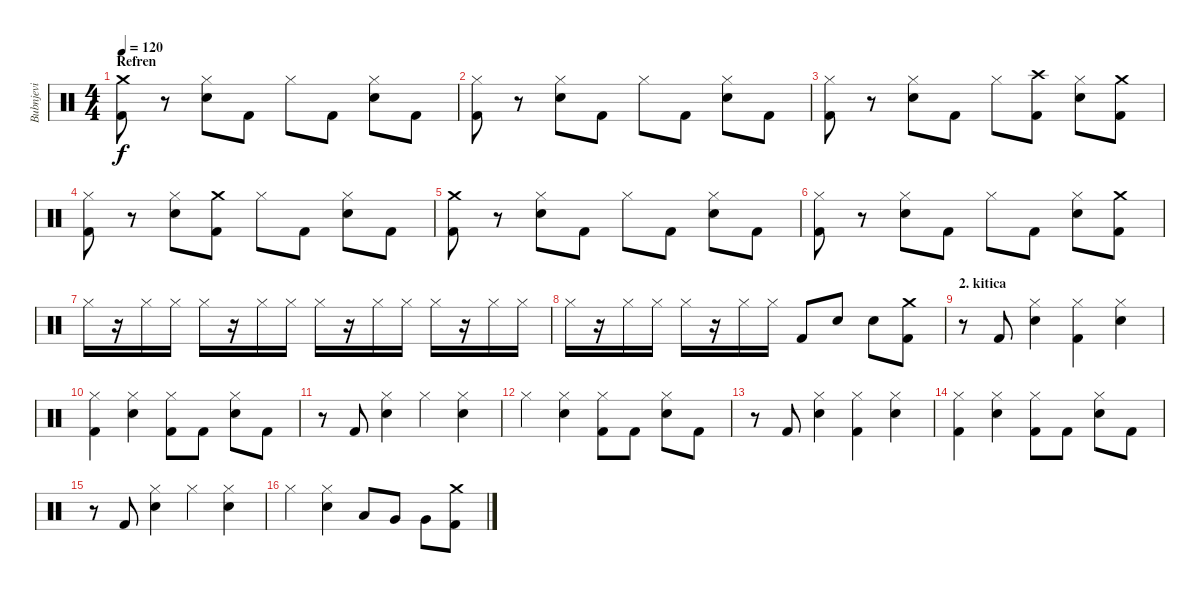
\track ("Bubnjevi" "Bubnjevi") {instrument percussion}
\staff {score}
\articulation defaults
\ts (4 4)
\section ("" "Refren")
\tempo 120
\clef neutral
\ks c
("Crash medium (hit)" "Kick (hit) 2").8{dy f} r.8 ("Electric Snare (hit)" "Hi-Hat (closed)").8 "Kick (hit) 2".8 "Hi-Hat (closed)".8 "Kick (hit) 2".8 ("Electric Snare (hit)" "Hi-Hat (closed)").8 "Kick (hit) 2".8 |
("Hi-Hat (closed)" "Kick (hit) 2").8 r.8 ("Electric Snare (hit)" "Hi-Hat (closed)").8 "Kick (hit) 2".8 "Hi-Hat (closed)".8 "Kick (hit) 2".8 ("Electric Snare (hit)" "Hi-Hat (closed)").8 "Kick (hit) 2".8 |
("Hi-Hat (closed)" "Kick (hit) 2").8 r.8 ("Electric Snare (hit)" "Hi-Hat (closed)").8 "Kick (hit) 2".8 "Hi-Hat (closed)".8 ("Crash high (hit)" "Kick (hit) 2").8 ("Electric Snare (hit)" "Hi-Hat (closed)").8 ("Crash medium (hit)" "Kick (hit) 2").8 |
("Hi-Hat (closed)" "Kick (hit) 2").8 r.8 ("Electric Snare (hit)" "Hi-Hat (closed)").8 ("Crash medium (hit)" "Kick (hit) 2").8 "Hi-Hat (closed)".8 "Kick (hit) 2".8 ("Electric Snare (hit)" "Hi-Hat (closed)").8 "Kick (hit) 2".8 |
("Crash medium (hit)" "Kick (hit) 2").8 r.8 ("Electric Snare (hit)" "Hi-Hat (closed)").8 "Kick (hit) 2".8 "Hi-Hat (closed)".8 "Kick (hit) 2".8 ("Electric Snare (hit)" "Hi-Hat (closed)").8 "Kick (hit) 2".8 |
("Hi-Hat (closed)" "Kick (hit) 2").8 r.8 ("Electric Snare (hit)" "Hi-Hat (closed)").8 "Kick (hit) 2".8 "Hi-Hat (closed)".8 "Kick (hit) 2".8 ("Electric Snare (hit)" "Hi-Hat (closed)").8 ("Crash medium (hit)" "Kick (hit) 2").8 |
"Hi-Hat (closed)".16 r.16 "Hi-Hat (closed)".16 "Hi-Hat (closed)".16 "Hi-Hat (closed)".16 r.16 "Hi-Hat (closed)".16 "Hi-Hat (closed)".16 "Hi-Hat (closed)".16 r.16 "Hi-Hat (closed)".16 "Hi-Hat (closed)".16 "Hi-Hat (closed)".16 r.16 "Hi-Hat (closed)".16 "Hi-Hat (closed)".16 |
"Hi-Hat (closed)".16 r.16 "Hi-Hat (closed)".16 "Hi-Hat (closed)".16 "Hi-Hat (closed)".16 r.16 "Hi-Hat (closed)".16 "Hi-Hat (closed)".16 "Kick (hit) 2".8 "Electric Snare (hit)".8 "Electric Snare (hit)".8 ("Crash medium (hit)" "Kick (hit) 2").8 |
\section ("" "2. kitica")
r.8 "Kick (hit) 2".8 ("Electric Snare (hit)" "Hi-Hat (closed)").4 ("Hi-Hat (closed)" "Kick (hit) 2").4 ("Electric Snare (hit)" "Hi-Hat (closed)").4 |
("Hi-Hat (closed)" "Kick (hit) 2").4 ("Electric Snare (hit)" "Hi-Hat (closed)").4 ("Hi-Hat (closed)" "Kick (hit) 2").8 "Kick (hit) 2".8 ("Electric Snare (hit)" "Hi-Hat (closed)").8 "Kick (hit) 2".8 |
r.8 "Kick (hit) 2".8 ("Electric Snare (hit)" "Hi-Hat (closed)").4 "Hi-Hat (closed)".4 ("Electric Snare (hit)" "Hi-Hat (closed)").4 |
"Hi-Hat (closed)".4 ("Electric Snare (hit)" "Hi-Hat (closed)").4 ("Hi-Hat (closed)" "Kick (hit) 2").8 "Kick (hit) 2".8 ("Electric Snare (hit)" "Hi-Hat (closed)").8 "Kick (hit) 2".8 |
r.8 "Kick (hit) 2".8 ("Electric Snare (hit)" "Hi-Hat (closed)").4 ("Hi-Hat (closed)" "Kick (hit) 2").4 ("Electric Snare (hit)" "Hi-Hat (closed)").4 |
("Hi-Hat (closed)" "Kick (hit) 2").4 ("Electric Snare (hit)" "Hi-Hat (closed)").4 ("Hi-Hat (closed)" "Kick (hit) 2").8 "Kick (hit) 2".8 ("Electric Snare (hit)" "Hi-Hat (closed)").8 "Kick (hit) 2".8 |
r.8 "Kick (hit) 2".8 ("Electric Snare (hit)" "Hi-Hat (closed)").4 "Hi-Hat (closed)".4 ("Electric Snare (hit)" "Hi-Hat (closed)").4 |
"Hi-Hat (closed)".4 ("Electric Snare (hit)" "Hi-Hat (closed)").4 "Low Tom (hit)".8 "Very Low Tom (hit)".8 "Very Low Tom (hit)".8 ("Crash medium (hit)" "Kick (hit) 2").8
